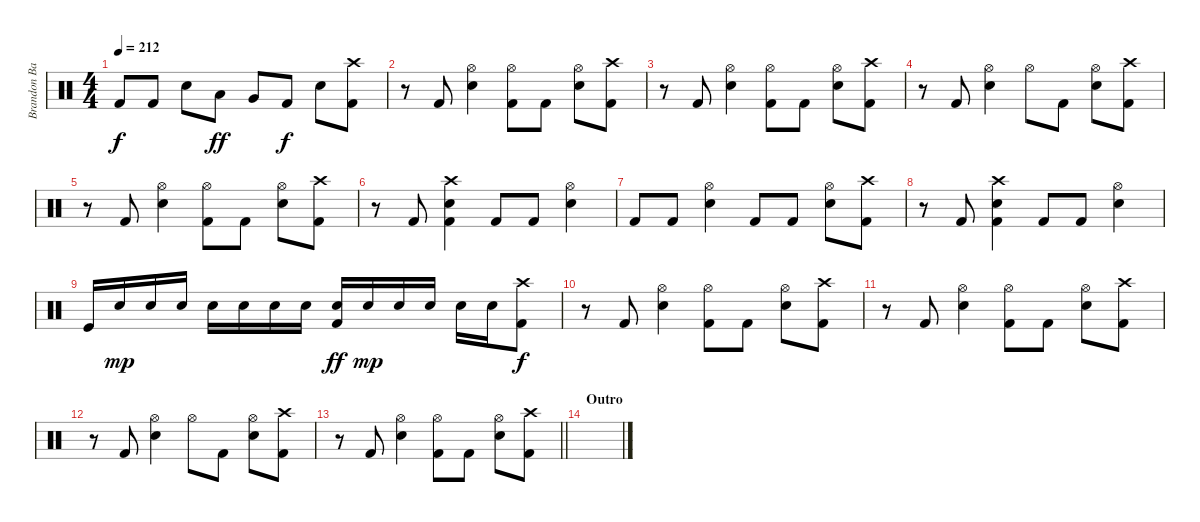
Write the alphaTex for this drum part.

\track ("Brandon Barnes - Drums" "Brandon Ba") {instrument percussion}
\staff {score}
\articulation defaults
\ts (4 4)
\tempo 212
\clef neutral
\ks c "Kick (hit) 2".8{dy f} "Kick (hit) 2".8 "Snare (hit) 2".8 "Low Tom (hit)".8{dy ff} "Very Low Tom (hit)".8 "Kick (hit) 2".8{dy f} "Snare (hit) 2".8
("Kick (hit) 2" "Crash high (hit)").8 |
r.8 "Kick (hit) 2".8 ("Snare (hit) 2" "Hi-Hat (open)").4 ("Kick (hit) 2" "Hi-Hat (open)").8 "Kick (hit) 2".8 ("Snare (hit) 2" "Hi-Hat (open)").8 ("Kick (hit) 2" "Crash high (hit)").8 |
r.8 "Kick (hit) 2".8 ("Snare (hit) 2" "Hi-Hat (open)").4 ("Kick (hit) 2" "Hi-Hat (open)").8 "Kick (hit) 2".8 ("Snare (hit) 2" "Hi-Hat (open)").8 ("Kick (hit) 2" "Crash high (hit)").8 |
r.8 "Kick (hit) 2".8 ("Snare (hit) 2" "Hi-Hat (open)").4 "Hi-Hat (open)".8 "Kick (hit) 2".8 ("Snare (hit) 2" "Hi-Hat (open)").8 ("Kick (hit) 2" "Crash high (hit)").8 |
r.8 "Kick (hit) 2".8 ("Snare (hit) 2" "Hi-Hat (open)").4 ("Kick (hit) 2" "Hi-Hat (open)").8 "Kick (hit) 2".8 ("Snare (hit) 2" "Hi-Hat (open)").8 ("Kick (hit) 2" "Crash high (hit)").8 |
r.8 "Kick (hit) 2".8 ("Kick (hit) 2" "Snare (hit) 2" "Crash high (hit)").4 "Kick (hit) 2".8 "Kick (hit) 2".8 ("Snare (hit) 2" "Hi-Hat (open)").4 |
"Kick (hit) 2".8 "Kick (hit) 2".8 ("Snare (hit) 2" "Hi-Hat (open)").4 "Kick (hit) 2".8 "Kick (hit) 2".8 ("Snare (hit) 2" "Hi-Hat (open)").8 ("Kick (hit) 2" "Crash high (hit)").8 |
r.8 "Kick (hit) 2".8 ("Kick (hit) 2" "Snare (hit) 2" "Crash high (hit)").4 "Kick (hit) 2".8 "Kick (hit) 2".8 ("Snare (hit) 2" "Hi-Hat (open)").4 |
"Kick (hit)".16 "Snare (hit) 2".16{dy mp} "Snare (hit) 2".16 "Snare (hit) 2".16 "Snare (hit) 2".16 "Snare (hit) 2".16 "Snare (hit) 2".16 "Snare (hit) 2".16 ("Snare (hit) 2" "Kick (hit) 2").16{dy ff} "Snare (hit) 2".16{dy mp} "Snare (hit) 2".16 "Snare (hit) 2".16 "Snare (hit) 2".16 "Snare (hit) 2".16 ("Crash high (hit)" "Kick (hit) 2").8{dy f} |
r.8 "Kick (hit) 2".8 ("Snare (hit) 2" "Hi-Hat (open)").4 ("Kick (hit) 2" "Hi-Hat (open)").8 "Kick (hit) 2".8 ("Snare (hit) 2" "Hi-Hat (open)").8 ("Kick (hit) 2" "Crash high (hit)").8 |
r.8 "Kick (hit) 2".8 ("Snare (hit) 2" "Hi-Hat (open)").4 ("Kick (hit) 2" "Hi-Hat (open)").8 "Kick (hit) 2".8 ("Snare (hit) 2" "Hi-Hat (open)").8 ("Kick (hit) 2" "Crash high (hit)").8 |
r.8 "Kick (hit) 2".8 ("Snare (hit) 2" "Hi-Hat (open)").4 "Hi-Hat (open)".8 "Kick (hit) 2".8 ("Snare (hit) 2" "Hi-Hat (open)").8 ("Kick (hit) 2" "Crash high (hit)").8 |
\barLineRight lightlight
r.8 "Kick (hit) 2".8 ("Snare (hit) 2" "Hi-Hat (open)").4 ("Kick (hit) 2" "Hi-Hat (open)").8 "Kick (hit) 2".8 ("Snare (hit) 2" "Hi-Hat (open)").8 ("Kick (hit) 2" "Crash high (hit)").8 |
\section ("" "Outro")
